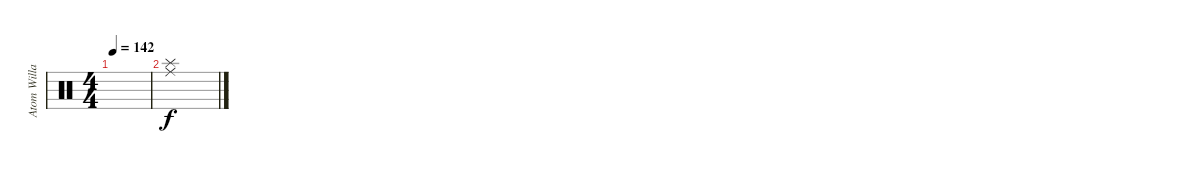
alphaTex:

\track ("Atom Willard" "Atom Willa") {instrument percussion}
\staff {score}
\articulation defaults
\ts (4 4)
\tempo 142
\clef neutral
\ks c
|
("Splash (hit)" "Ride (middle)").1
